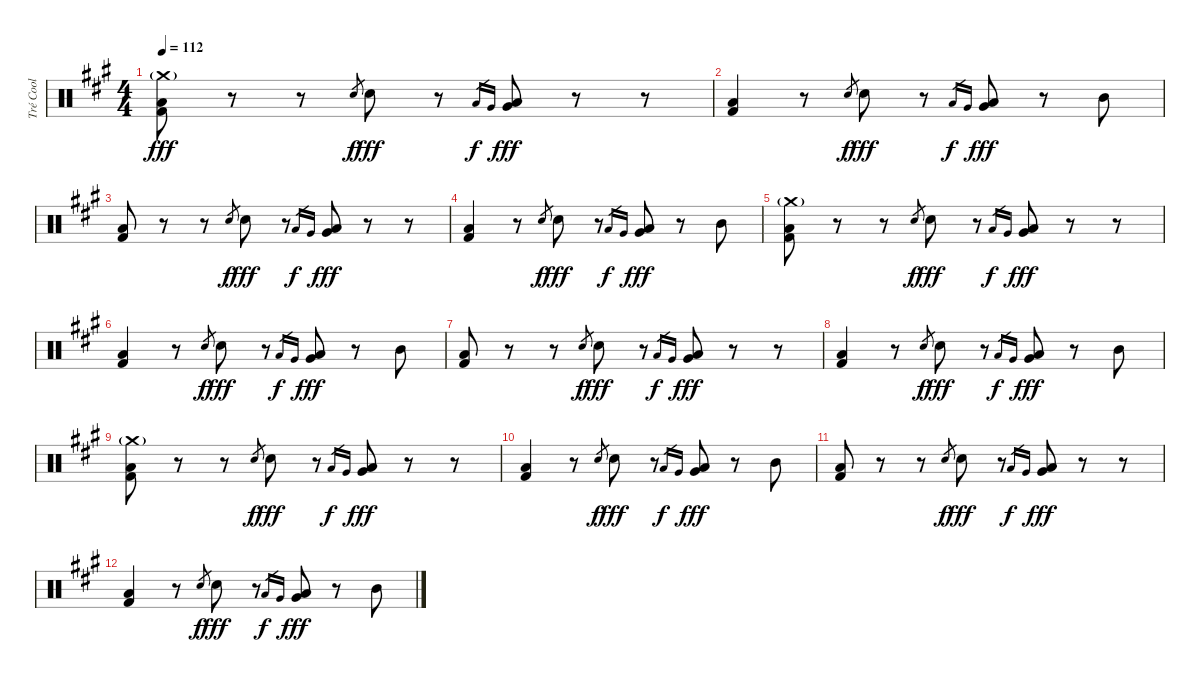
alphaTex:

\track ("Tré Cool" "Tré Cool") {instrument percussion}
\staff {score}
\articulation defaults
\ts (4 4)
\tempo 112
\clef neutral
\ks a
("Crash medium (hit)"{g} "Low Floor Tom (hit)" "Kick (hit) 2").8{dy fff} r.8 r.8 "Electric Snare (hit)".8{gr dy f} "Electric Snare (hit)".8{dy fff} r.8 "Low Floor Tom (hit)".16{gr dy f} "Very Low Tom (hit)".16{gr} ("Low Floor Tom (hit)" "Very Low Tom (hit)").8{dy fff} r.8 r.8 |
("Low Floor Tom (hit)" "Kick (hit) 2").4 r.8 "Electric Snare (hit)".8{gr dy f} "Electric Snare (hit)".8{dy fff} r.8 "Low Floor Tom (hit)".16{gr dy f} "Very Low Tom (hit)".16{gr} ("Low Floor Tom (hit)" "Very Low Tom (hit)").8{dy fff} r.8 "Mid Tom (hit)".8 |
("Low Floor Tom (hit)" "Kick (hit) 2").8 r.8 r.8 "Electric Snare (hit)".8{gr dy f} "Electric Snare (hit)".8{dy fff} r.8 "Low Floor Tom (hit)".16{gr dy f} "Very Low Tom (hit)".16{gr} ("Low Floor Tom (hit)" "Very Low Tom (hit)").8{dy fff} r.8 r.8 |
("Low Floor Tom (hit)" "Kick (hit) 2").4 r.8 "Electric Snare (hit)".8{gr dy f} "Electric Snare (hit)".8{dy fff} r.8 "Low Floor Tom (hit)".16{gr dy f} "Very Low Tom (hit)".16{gr} ("Low Floor Tom (hit)" "Very Low Tom (hit)").8{dy fff} r.8 "Mid Tom (hit)".8 |
("Crash medium (hit)"{g} "Low Floor Tom (hit)" "Kick (hit) 2").8 r.8 r.8 "Electric Snare (hit)".8{gr dy f} "Electric Snare (hit)".8{dy fff} r.8 "Low Floor Tom (hit)".16{gr dy f} "Very Low Tom (hit)".16{gr} ("Low Floor Tom (hit)" "Very Low Tom (hit)").8{dy fff} r.8 r.8 |
("Low Floor Tom (hit)" "Kick (hit) 2").4 r.8 "Electric Snare (hit)".8{gr dy f} "Electric Snare (hit)".8{dy fff} r.8 "Low Floor Tom (hit)".16{gr dy f} "Very Low Tom (hit)".16{gr} ("Low Floor Tom (hit)" "Very Low Tom (hit)").8{dy fff} r.8 "Mid Tom (hit)".8 |
("Low Floor Tom (hit)" "Kick (hit) 2").8 r.8 r.8 "Electric Snare (hit)".8{gr dy f} "Electric Snare (hit)".8{dy fff} r.8 "Low Floor Tom (hit)".16{gr dy f} "Very Low Tom (hit)".16{gr} ("Low Floor Tom (hit)" "Very Low Tom (hit)").8{dy fff} r.8 r.8 |
("Low Floor Tom (hit)" "Kick (hit) 2").4 r.8 "Electric Snare (hit)".8{gr dy f} "Electric Snare (hit)".8{dy fff} r.8 "Low Floor Tom (hit)".16{gr dy f} "Very Low Tom (hit)".16{gr} ("Low Floor Tom (hit)" "Very Low Tom (hit)").8{dy fff} r.8 "Mid Tom (hit)".8 |
("Crash medium (hit)"{g} "Low Floor Tom (hit)" "Kick (hit) 2").8 r.8 r.8 "Electric Snare (hit)".8{gr dy f} "Electric Snare (hit)".8{dy fff} r.8 "Low Floor Tom (hit)".16{gr dy f} "Very Low Tom (hit)".16{gr} ("Low Floor Tom (hit)" "Very Low Tom (hit)").8{dy fff} r.8 r.8 |
("Low Floor Tom (hit)" "Kick (hit) 2").4 r.8 "Electric Snare (hit)".8{gr dy f} "Electric Snare (hit)".8{dy fff} r.8 "Low Floor Tom (hit)".16{gr dy f} "Very Low Tom (hit)".16{gr} ("Low Floor Tom (hit)" "Very Low Tom (hit)").8{dy fff} r.8 "Mid Tom (hit)".8 |
("Low Floor Tom (hit)" "Kick (hit) 2").8 r.8 r.8 "Electric Snare (hit)".8{gr dy f} "Electric Snare (hit)".8{dy fff} r.8 "Low Floor Tom (hit)".16{gr dy f} "Very Low Tom (hit)".16{gr} ("Low Floor Tom (hit)" "Very Low Tom (hit)").8{dy fff} r.8 r.8 |
("Low Floor Tom (hit)" "Kick (hit) 2").4 r.8 "Electric Snare (hit)".8{gr dy f} "Electric Snare (hit)".8{dy fff} r.8 "Low Floor Tom (hit)".16{gr dy f} "Very Low Tom (hit)".16{gr} ("Low Floor Tom (hit)" "Very Low Tom (hit)").8{dy fff} r.8 "Mid Tom (hit)".8
